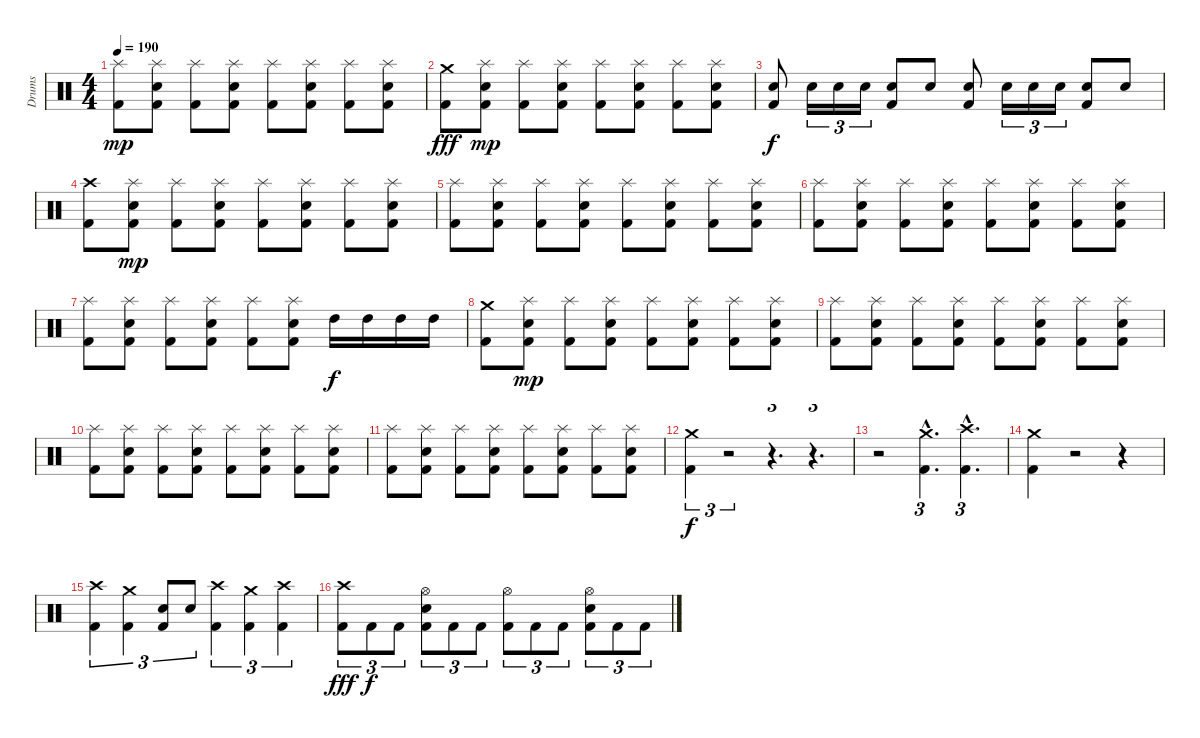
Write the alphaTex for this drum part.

\track ("Drums" "Drums") {instrument percussion}
\staff {score}
\articulation defaults
\ts (4 4)
\tempo 190
\clef neutral
\ks c
("Splash (hit)" "Kick (hit) 2").8{dy mp} ("Splash (hit)" "Snare (hit) 2" "Kick (hit) 2").8 ("Splash (hit)" "Kick (hit) 2").8 ("Splash (hit)" "Snare (hit) 2" "Kick (hit) 2").8 ("Splash (hit)" "Kick (hit) 2").8 ("Splash (hit)" "Snare (hit) 2" "Kick (hit) 2").8 ("Splash (hit)" "Kick (hit) 2").8 ("Splash (hit)" "Snare (hit) 2" "Kick (hit) 2").8 |
("Crash medium (hit)" "Kick (hit) 2").8{dy fff} ("Splash (hit)" "Snare (hit) 2" "Kick (hit) 2").8{dy mp} ("Splash (hit)" "Kick (hit) 2").8 ("Splash (hit)" "Snare (hit) 2" "Kick (hit) 2").8 ("Splash (hit)" "Kick (hit) 2").8 ("Splash (hit)" "Snare (hit) 2" "Kick (hit) 2").8 ("Splash (hit)" "Kick (hit) 2").8 ("Splash (hit)" "Snare (hit) 2" "Kick (hit) 2").8 |
("Snare (hit) 2" "Kick (hit) 2").8{dy f} "Snare (hit) 2".16{tu (3 2)} "Snare (hit) 2".16{tu (3 2)} "Snare (hit) 2".16{tu (3 2)} ("Snare (hit) 2" "Kick (hit) 2").8 "Snare (hit) 2".8 ("Snare (hit) 2" "Kick (hit) 2").8 "Snare (hit) 2".16{tu (3 2)} "Snare (hit) 2".16{tu (3 2)} "Snare (hit) 2".16{tu (3 2)} ("Snare (hit) 2" "Kick (hit) 2").8 "Snare (hit) 2".8 |
("Crash high (hit)" "Kick (hit) 2").8 ("Splash (hit)" "Snare (hit) 2" "Kick (hit) 2").8{dy mp} ("Splash (hit)" "Kick (hit) 2").8 ("Splash (hit)" "Snare (hit) 2" "Kick (hit) 2").8 ("Splash (hit)" "Kick (hit) 2").8 ("Splash (hit)" "Snare (hit) 2" "Kick (hit) 2").8 ("Splash (hit)" "Kick (hit) 2").8 ("Splash (hit)" "Snare (hit) 2" "Kick (hit) 2").8 |
("Splash (hit)" "Kick (hit) 2").8 ("Splash (hit)" "Snare (hit) 2" "Kick (hit) 2").8 ("Splash (hit)" "Kick (hit) 2").8 ("Splash (hit)" "Snare (hit) 2" "Kick (hit) 2").8 ("Splash (hit)" "Kick (hit) 2").8 ("Splash (hit)" "Snare (hit) 2" "Kick (hit) 2").8 ("Splash (hit)" "Kick (hit) 2").8 ("Splash (hit)" "Snare (hit) 2" "Kick (hit) 2").8 |
("Splash (hit)" "Kick (hit) 2").8 ("Splash (hit)" "Snare (hit) 2" "Kick (hit) 2").8 ("Splash (hit)" "Kick (hit) 2").8 ("Splash (hit)" "Snare (hit) 2" "Kick (hit) 2").8 ("Splash (hit)" "Kick (hit) 2").8 ("Splash (hit)" "Snare (hit) 2" "Kick (hit) 2").8 ("Splash (hit)" "Kick (hit) 2").8 ("Splash (hit)" "Snare (hit) 2" "Kick (hit) 2").8 |
("Splash (hit)" "Kick (hit) 2").8 ("Splash (hit)" "Snare (hit) 2" "Kick (hit) 2").8 ("Splash (hit)" "Kick (hit) 2").8 ("Splash (hit)" "Snare (hit) 2" "Kick (hit) 2").8 ("Splash (hit)" "Kick (hit) 2").8 ("Splash (hit)" "Snare (hit) 2" "Kick (hit) 2").8 "High Tom (hit)".16{dy f} "High Tom (hit)".16 "High Tom (hit)".16 "High Tom (hit)".16 |
("Crash medium (hit)" "Kick (hit) 2").8 ("Splash (hit)" "Snare (hit) 2" "Kick (hit) 2").8{dy mp} ("Splash (hit)" "Kick (hit) 2").8 ("Splash (hit)" "Snare (hit) 2" "Kick (hit) 2").8 ("Splash (hit)" "Kick (hit) 2").8 ("Splash (hit)" "Snare (hit) 2" "Kick (hit) 2").8 ("Splash (hit)" "Kick (hit) 2").8 ("Splash (hit)" "Snare (hit) 2" "Kick (hit) 2").8 |
("Splash (hit)" "Kick (hit) 2").8 ("Splash (hit)" "Snare (hit) 2" "Kick (hit) 2").8 ("Splash (hit)" "Kick (hit) 2").8 ("Splash (hit)" "Snare (hit) 2" "Kick (hit) 2").8 ("Splash (hit)" "Kick (hit) 2").8 ("Splash (hit)" "Snare (hit) 2" "Kick (hit) 2").8 ("Splash (hit)" "Kick (hit) 2").8 ("Splash (hit)" "Snare (hit) 2" "Kick (hit) 2").8 |
("Splash (hit)" "Kick (hit) 2").8 ("Splash (hit)" "Snare (hit) 2" "Kick (hit) 2").8 ("Splash (hit)" "Kick (hit) 2").8 ("Splash (hit)" "Snare (hit) 2" "Kick (hit) 2").8 ("Splash (hit)" "Kick (hit) 2").8 ("Splash (hit)" "Snare (hit) 2" "Kick (hit) 2").8 ("Splash (hit)" "Kick (hit) 2").8 ("Splash (hit)" "Snare (hit) 2" "Kick (hit) 2").8 |
("Splash (hit)" "Kick (hit) 2").8 ("Splash (hit)" "Snare (hit) 2" "Kick (hit) 2").8 ("Splash (hit)" "Kick (hit) 2").8 ("Splash (hit)" "Snare (hit) 2" "Kick (hit) 2").8 ("Splash (hit)" "Kick (hit) 2").8 ("Splash (hit)" "Snare (hit) 2" "Kick (hit) 2").8 ("Splash (hit)" "Kick (hit) 2").8 ("Splash (hit)" "Snare (hit) 2" "Kick (hit) 2").8 |
("Crash medium (hit)" "Kick (hit) 2").4{tu (3 2) dy f} r.2{tu (3 2)} r.4{d tu (3 2)} r.4{d tu (3 2)} |
r.2 ("Crash medium (hit)"{hac} "Kick (hit) 2"{hac}).4{d tu (3 2)} ("Crash high (hit)"{hac} "Kick (hit) 2"{hac}).4{d tu (3 2)} |
("Crash medium (hit)" "Kick (hit) 2").4 r.2 r.4 |
("Crash high (hit)" "Kick (hit) 2").4{tu (3 2)} ("Crash medium (hit)" "Kick (hit) 2").4{tu (3 2)} ("Snare (hit) 2" "Kick (hit) 2").8{tu (3 2)} "Snare (hit) 2".8{tu (3 2)} ("Crash high (hit)" "Kick (hit) 2").4{tu (3 2)} ("Crash medium (hit)" "Kick (hit) 2").4{tu (3 2)} ("Crash high (hit)" "Kick (hit) 2").4{tu (3 2)} |
("Crash high (hit)" "Kick (hit) 2").8{tu (3 2) dy fff} "Kick (hit) 2".8{tu (3 2) dy f} "Kick (hit) 2".8{tu (3 2)} ("Hi-Hat (open)" "Snare (hit) 2" "Kick (hit) 2").8{tu (3 2)} "Kick (hit) 2".8{tu (3 2)} "Kick (hit) 2".8{tu (3 2)} ("Hi-Hat (open)" "Kick (hit) 2").8{tu (3 2)} "Kick (hit) 2".8{tu (3 2)} "Kick (hit) 2".8{tu (3 2)} ("Hi-Hat (open)" "Snare (hit) 2" "Kick (hit) 2").8{tu (3 2)} "Kick (hit) 2".8{tu (3 2)} "Kick (hit) 2".8{tu (3 2)}
